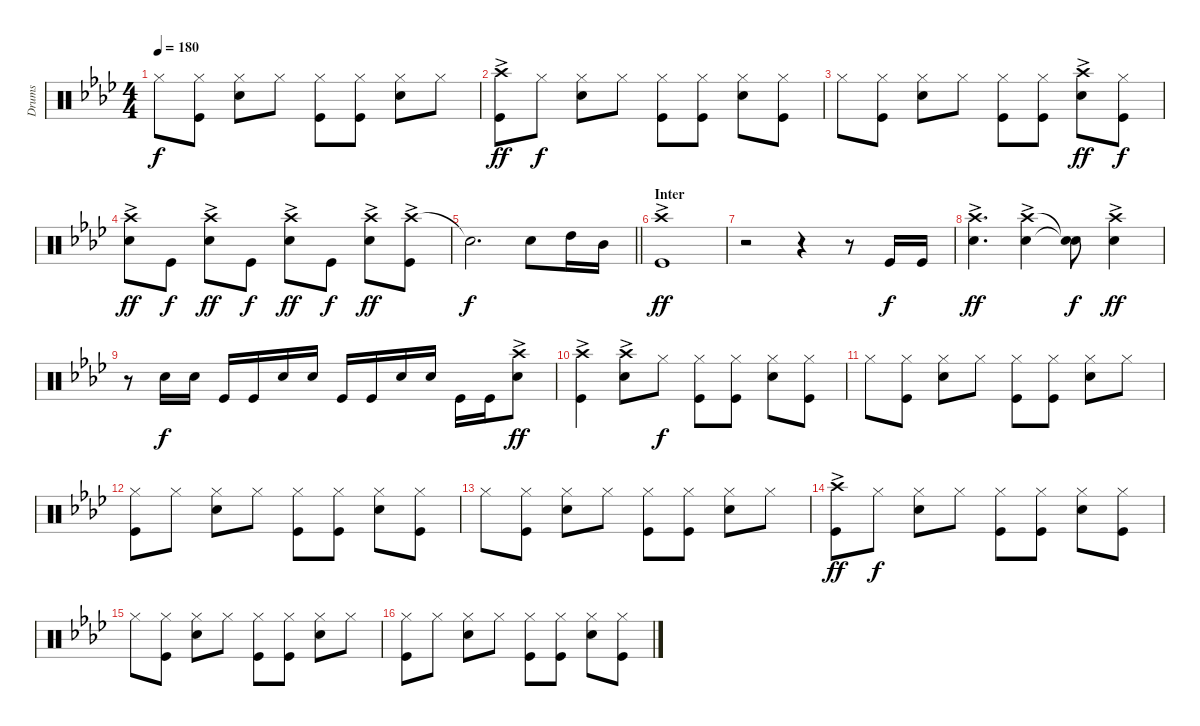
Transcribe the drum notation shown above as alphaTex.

\track ("Drums" "Drums") {instrument percussion}
\staff {score}
\articulation defaults
\ts (4 4)
\tempo 180
\clef neutral
\ks ab "Hi-Hat (closed)".8{dy f}
("Hi-Hat (closed)" "Kick (hit)").8 ("Hi-Hat (closed)" "Snare (hit) 2").8 "Hi-Hat (closed)".8 ("Hi-Hat (closed)" "Kick (hit)").8 ("Hi-Hat (closed)" "Kick (hit)").8 ("Hi-Hat (closed)" "Snare (hit) 2").8 "Hi-Hat (closed)".8 |
("Crash high (hit)"{ac} "Kick (hit)").8{dy ff} "Hi-Hat (closed)".8{dy f} ("Hi-Hat (closed)" "Snare (hit) 2").8 "Hi-Hat (closed)".8 ("Hi-Hat (closed)" "Kick (hit)").8 ("Hi-Hat (closed)" "Kick (hit)").8 ("Hi-Hat (closed)" "Snare (hit) 2").8 ("Hi-Hat (closed)" "Kick (hit)").8 |
"Hi-Hat (closed)".8 ("Hi-Hat (closed)" "Kick (hit)").8 ("Hi-Hat (closed)" "Snare (hit) 2").8 "Hi-Hat (closed)".8 ("Hi-Hat (closed)" "Kick (hit)").8 ("Hi-Hat (closed)" "Kick (hit)").8 ("Crash high (hit)"{ac} "Snare (hit) 2").8{dy ff} ("Hi-Hat (closed)" "Kick (hit)").8{dy f} |
("Crash high (hit)"{ac} "Snare (hit) 2").8{dy ff} "Kick (hit)".8{dy f} ("Crash high (hit)"{ac} "Snare (hit) 2").8{dy ff} "Kick (hit)".8{dy f} ("Crash high (hit)"{ac} "Snare (hit) 2").8{dy ff} "Kick (hit)".8{dy f} ("Crash high (hit)"{ac} "Snare (hit) 2").8{dy ff} ("Crash high (hit)"{ac} "Kick (hit)").8 |
\barLineRight lightlight "Snare (hit)"{t}.2{d dy f} "Snare (hit) 2".8 "High Tom (hit)".16 "Mid Tom (hit)".16
|
\section ("" "Inter")
("Crash high (hit)"{ac} "Kick (hit)").1{dy ff} |
r.2 r.4 r.8 "Kick (hit)".16{dy f} "Kick (hit)".16 |
("Crash high (hit)"{ac} "Snare (hit) 2").4{d dy ff} ("Crash high (hit)"{ac} "Snare (hit) 2").4 ("Snare (hit)"{t} "Snare (hit)"{t}).8{dy f} ("Crash high (hit)"{ac} "Snare (hit) 2").4{dy ff} |
r.8 "Snare (hit) 2".16{dy f} "Snare (hit) 2".16 "Kick (hit)".16 "Kick (hit)".16 "Snare (hit) 2".16 "Snare (hit) 2".16 "Kick (hit)".16 "Kick (hit)".16 "Snare (hit) 2".16 "Snare (hit) 2".16 "Kick (hit)".16 "Kick (hit)".16 ("Crash high (hit)"{ac} "Snare (hit) 2").8{dy ff} |
("Crash high (hit)"{ac} "Kick (hit)").4 ("Crash high (hit)"{ac} "Snare (hit) 2").8 "Hi-Hat (closed)".8{dy f} ("Hi-Hat (closed)" "Kick (hit)").8 ("Hi-Hat (closed)" "Kick (hit)").8 ("Hi-Hat (closed)" "Snare (hit) 2").8 ("Hi-Hat (closed)" "Kick (hit)").8 |
"Hi-Hat (closed)".8 ("Hi-Hat (closed)" "Kick (hit)").8 ("Hi-Hat (closed)" "Snare (hit) 2").8 "Hi-Hat (closed)".8 ("Hi-Hat (closed)" "Kick (hit)").8 ("Hi-Hat (closed)" "Kick (hit)").8 ("Hi-Hat (closed)" "Snare (hit) 2").8 "Hi-Hat (closed)".8 |
("Hi-Hat (closed)" "Kick (hit)").8 "Hi-Hat (closed)".8 ("Hi-Hat (closed)" "Snare (hit) 2").8 "Hi-Hat (closed)".8 ("Hi-Hat (closed)" "Kick (hit)").8 ("Hi-Hat (closed)" "Kick (hit)").8 ("Hi-Hat (closed)" "Snare (hit) 2").8 ("Hi-Hat (closed)" "Kick (hit)").8 |
"Hi-Hat (closed)".8 ("Hi-Hat (closed)" "Kick (hit)").8 ("Hi-Hat (closed)" "Snare (hit) 2").8 "Hi-Hat (closed)".8 ("Hi-Hat (closed)" "Kick (hit)").8 ("Hi-Hat (closed)" "Kick (hit)").8 ("Hi-Hat (closed)" "Snare (hit) 2").8 "Hi-Hat (closed)".8 |
("Crash high (hit)"{ac} "Kick (hit)").8{dy ff} "Hi-Hat (closed)".8{dy f} ("Hi-Hat (closed)" "Snare (hit) 2").8 "Hi-Hat (closed)".8 ("Hi-Hat (closed)" "Kick (hit)").8 ("Hi-Hat (closed)" "Kick (hit)").8 ("Hi-Hat (closed)" "Snare (hit) 2").8 ("Hi-Hat (closed)" "Kick (hit)").8 |
"Hi-Hat (closed)".8 ("Hi-Hat (closed)" "Kick (hit)").8 ("Hi-Hat (closed)" "Snare (hit) 2").8 "Hi-Hat (closed)".8 ("Hi-Hat (closed)" "Kick (hit)").8 ("Hi-Hat (closed)" "Kick (hit)").8 ("Hi-Hat (closed)" "Snare (hit) 2").8 "Hi-Hat (closed)".8 |
("Hi-Hat (closed)" "Kick (hit)").8 "Hi-Hat (closed)".8 ("Hi-Hat (closed)" "Snare (hit) 2").8 "Hi-Hat (closed)".8 ("Hi-Hat (closed)" "Kick (hit)").8 ("Hi-Hat (closed)" "Kick (hit)").8 ("Hi-Hat (closed)" "Snare (hit) 2").8 ("Hi-Hat (closed)" "Kick (hit)").8
